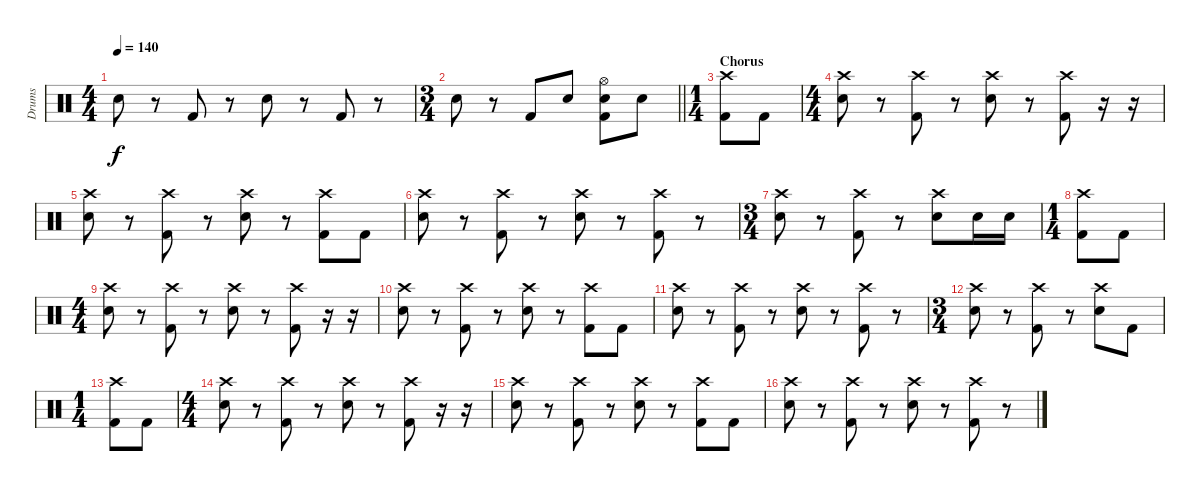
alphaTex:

\track ("Drums" "Drums") {instrument percussion}
\staff {score}
\articulation defaults
\ts (4 4)
\tempo 140
\clef neutral
\ks c "Electric Snare (hit)".8{dy f}
r.8 "Kick (hit) 2".8 r.8 "Electric Snare (hit)".8 r.8 "Kick (hit) 2".8 r.8 |
\ts (3 4)
\barLineRight lightlight "Electric Snare (hit)".8
r.8 "Kick (hit) 2".8 "Electric Snare (hit)".8 ("Hi-Hat (open)" "Electric Snare (hit)" "Kick (hit) 2").8 "Electric Snare (hit)".8 |
\ts (1 4)
\section ("" "Chorus")
("Crash high (hit)" "Kick (hit) 2").8 "Kick (hit) 2".8 |
\ts (4 4)
("Crash high (hit)" "Electric Snare (hit)").8 r.8 ("Crash high (hit)" "Kick (hit) 2").8 r.8 ("Crash high (hit)" "Electric Snare (hit)").8 r.8 ("Crash high (hit)" "Kick (hit) 2").8 r.16 r.16 |
("Crash high (hit)" "Electric Snare (hit)").8 r.8 ("Crash high (hit)" "Kick (hit) 2").8 r.8 ("Crash high (hit)" "Electric Snare (hit)").8 r.8 ("Crash high (hit)" "Kick (hit) 2").8 "Kick (hit) 2".8 |
("Crash high (hit)" "Electric Snare (hit)").8 r.8 ("Crash high (hit)" "Kick (hit) 2").8 r.8 ("Crash high (hit)" "Electric Snare (hit)").8 r.8 ("Crash high (hit)" "Kick (hit) 2").8 r.8 |
\ts (3 4)
("Crash high (hit)" "Electric Snare (hit)").8 r.8 ("Crash high (hit)" "Kick (hit) 2").8 r.8 ("Crash high (hit)" "Electric Snare (hit)").8 "Electric Snare (hit)".16 "Electric Snare (hit)".16 |
\ts (1 4)
("Crash high (hit)" "Kick (hit) 2").8 "Kick (hit) 2".8 |
\ts (4 4)
("Crash high (hit)" "Electric Snare (hit)").8 r.8 ("Crash high (hit)" "Kick (hit) 2").8 r.8 ("Crash high (hit)" "Electric Snare (hit)").8 r.8 ("Crash high (hit)" "Kick (hit) 2").8 r.16 r.16 |
("Crash high (hit)" "Electric Snare (hit)").8 r.8 ("Crash high (hit)" "Kick (hit) 2").8 r.8 ("Crash high (hit)" "Electric Snare (hit)").8 r.8 ("Crash high (hit)" "Kick (hit) 2").8 "Kick (hit) 2".8 |
("Crash high (hit)" "Electric Snare (hit)").8 r.8 ("Crash high (hit)" "Kick (hit) 2").8 r.8 ("Crash high (hit)" "Electric Snare (hit)").8 r.8 ("Crash high (hit)" "Kick (hit) 2").8 r.8 |
\ts (3 4)
("Crash high (hit)" "Electric Snare (hit)").8 r.8 ("Crash high (hit)" "Kick (hit) 2").8 r.8 ("Crash high (hit)" "Electric Snare (hit)").8 "Kick (hit) 2".8 |
\ts (1 4)
("Crash high (hit)" "Kick (hit) 2").8 "Kick (hit) 2".8 |
\ts (4 4)
("Crash high (hit)" "Electric Snare (hit)").8 r.8 ("Crash high (hit)" "Kick (hit) 2").8 r.8 ("Crash high (hit)" "Electric Snare (hit)").8 r.8 ("Crash high (hit)" "Kick (hit) 2").8 r.16 r.16 |
("Crash high (hit)" "Electric Snare (hit)").8 r.8 ("Crash high (hit)" "Kick (hit) 2").8 r.8 ("Crash high (hit)" "Electric Snare (hit)").8 r.8 ("Crash high (hit)" "Kick (hit) 2").8 "Kick (hit) 2".8 |
("Crash high (hit)" "Electric Snare (hit)").8 r.8 ("Crash high (hit)" "Kick (hit) 2").8 r.8 ("Crash high (hit)" "Electric Snare (hit)").8 r.8 ("Crash high (hit)" "Kick (hit) 2").8 r.8
